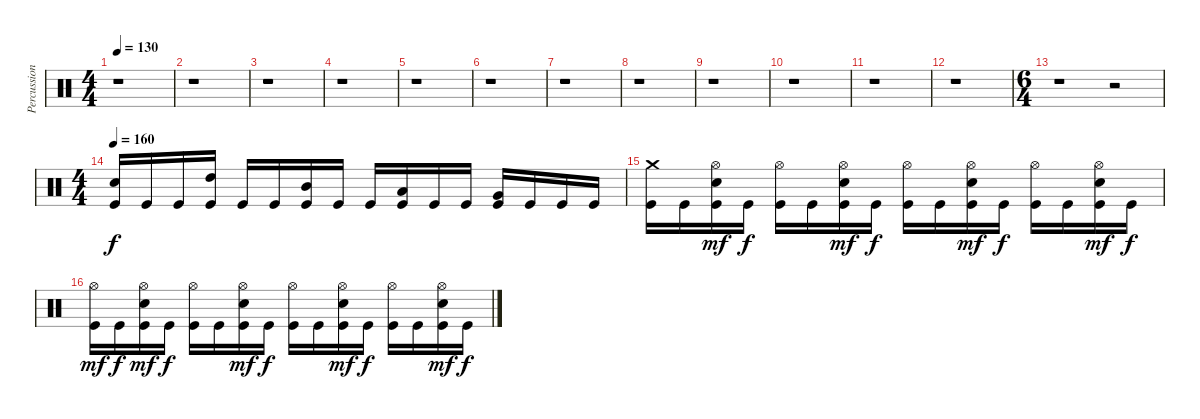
\track ("Percussions" "Percussion") {instrument percussion}
\staff {score}
\articulation defaults
\ts (4 4)
\tempo 130
\clef neutral
\ks c
r.1{dy ppp} |
r.1 |
r.1 |
r.1 |
r.1 |
r.1 |
r.1 |
r.1 |
r.1 |
r.1 |
r.1 |
r.1 |
\ts (6 4)
r.1 r.2 |
\ts (4 4)
\tempo 160
("Electric Snare (hit)" "Kick (hit)").16{dy f} "Kick (hit)".16 "Kick (hit)".16 ("High Tom (hit)" "Kick (hit)").16 "Kick (hit)".16 "Kick (hit)".16 ("Mid Tom (hit)" "Kick (hit)").16 "Kick (hit)".16 "Kick (hit)".16 ("Low Tom (hit)" "Kick (hit)").16 "Kick (hit)".16 "Kick (hit)".16 ("Very Low Tom (hit)" "Kick (hit)").16 "Kick (hit)".16 "Kick (hit)".16 "Kick (hit)".16 |
("Crash medium (hit)" "Kick (hit)").16 "Kick (hit)".16 ("Hi-Hat (open)" "Electric Snare (hit)" "Kick (hit)").16{dy mf} "Kick (hit)".16{dy f} ("Hi-Hat (open)" "Kick (hit)").16 "Kick (hit)".16 ("Hi-Hat (open)" "Electric Snare (hit)" "Kick (hit)").16{dy mf} "Kick (hit)".16{dy f} ("Hi-Hat (open)" "Kick (hit)").16 "Kick (hit)".16 ("Hi-Hat (open)" "Electric Snare (hit)" "Kick (hit)").16{dy mf} "Kick (hit)".16{dy f} ("Hi-Hat (open)" "Kick (hit)").16 "Kick (hit)".16 ("Hi-Hat (open)" "Electric Snare (hit)" "Kick (hit)").16{dy mf} "Kick (hit)".16{dy f} |
("Hi-Hat (open)" "Kick (hit)").16{dy mf} "Kick (hit)".16{dy f} ("Hi-Hat (open)" "Electric Snare (hit)" "Kick (hit)").16{dy mf} "Kick (hit)".16{dy f} ("Hi-Hat (open)" "Kick (hit)").16 "Kick (hit)".16 ("Hi-Hat (open)" "Electric Snare (hit)" "Kick (hit)").16{dy mf} "Kick (hit)".16{dy f} ("Hi-Hat (open)" "Kick (hit)").16 "Kick (hit)".16 ("Hi-Hat (open)" "Electric Snare (hit)" "Kick (hit)").16{dy mf} "Kick (hit)".16{dy f} ("Hi-Hat (open)" "Kick (hit)").16 "Kick (hit)".16 ("Hi-Hat (open)" "Electric Snare (hit)" "Kick (hit)").16{dy mf} "Kick (hit)".16{dy f}
